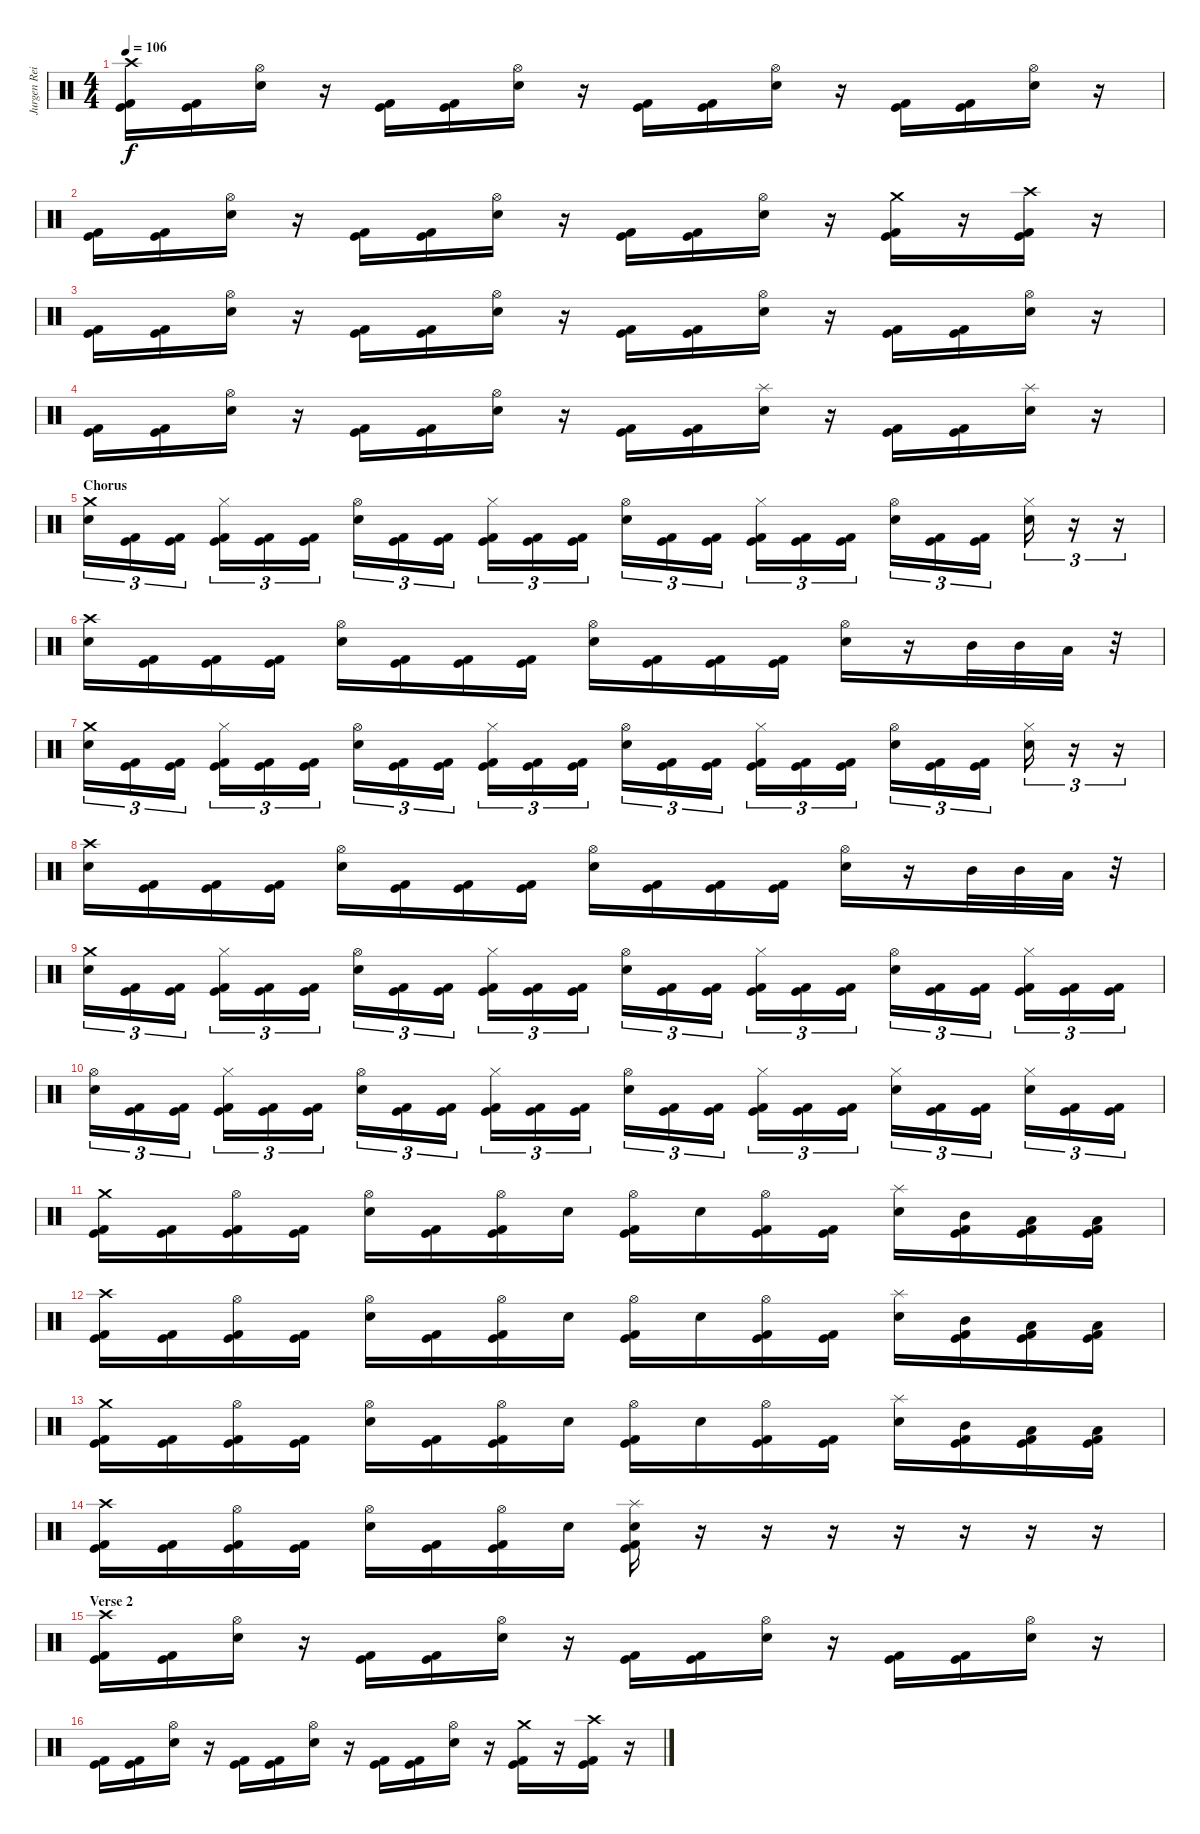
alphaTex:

\track ("Jurgen Reil" "Jurgen Rei") {instrument percussion}
\staff {score}
\articulation defaults
\ts (4 4)
\tempo 106
\clef neutral
\ks c
("Crash high (hit)" "Kick (hit)" "Kick (hit) 2").16{dy f} ("Kick (hit)" "Kick (hit) 2").16 ("Hi-Hat (open)" "Electric Snare (hit)").16 r.16 ("Kick (hit)" "Kick (hit) 2").16 ("Kick (hit)" "Kick (hit) 2").16 ("Hi-Hat (open)" "Electric Snare (hit)").16 r.16 ("Kick (hit)" "Kick (hit) 2").16 ("Kick (hit)" "Kick (hit) 2").16 ("Hi-Hat (open)" "Electric Snare (hit)").16 r.16 ("Kick (hit)" "Kick (hit) 2").16 ("Kick (hit)" "Kick (hit) 2").16 ("Hi-Hat (open)" "Electric Snare (hit)").16 r.16 |
("Kick (hit)" "Kick (hit) 2").16 ("Kick (hit)" "Kick (hit) 2").16 ("Hi-Hat (open)" "Electric Snare (hit)").16 r.16 ("Kick (hit)" "Kick (hit) 2").16 ("Kick (hit)" "Kick (hit) 2").16 ("Hi-Hat (open)" "Electric Snare (hit)").16 r.16 ("Kick (hit)" "Kick (hit) 2").16 ("Kick (hit)" "Kick (hit) 2").16 ("Hi-Hat (open)" "Electric Snare (hit)").16 r.16 ("Crash medium (hit)" "Kick (hit)" "Kick (hit) 2").16 r.16 ("Crash high (hit)" "Kick (hit)" "Kick (hit) 2").16 r.16 |
("Kick (hit)" "Kick (hit) 2").16 ("Kick (hit)" "Kick (hit) 2").16 ("Hi-Hat (open)" "Electric Snare (hit)").16 r.16 ("Kick (hit)" "Kick (hit) 2").16 ("Kick (hit)" "Kick (hit) 2").16 ("Hi-Hat (open)" "Electric Snare (hit)").16 r.16 ("Kick (hit)" "Kick (hit) 2").16 ("Kick (hit)" "Kick (hit) 2").16 ("Hi-Hat (open)" "Electric Snare (hit)").16 r.16 ("Kick (hit)" "Kick (hit) 2").16 ("Kick (hit)" "Kick (hit) 2").16 ("Hi-Hat (open)" "Electric Snare (hit)").16 r.16 |
("Kick (hit)" "Kick (hit) 2").16 ("Kick (hit)" "Kick (hit) 2").16 ("Hi-Hat (open)" "Electric Snare (hit)").16 r.16 ("Kick (hit)" "Kick (hit) 2").16 ("Kick (hit)" "Kick (hit) 2").16 ("Hi-Hat (open)" "Electric Snare (hit)").16 r.16 ("Kick (hit)" "Kick (hit) 2").16 ("Kick (hit)" "Kick (hit) 2").16 ("Splash (hit)" "Electric Snare (hit)").16 r.16 ("Kick (hit)" "Kick (hit) 2").16 ("Kick (hit)" "Kick (hit) 2").16 ("Splash (hit)" "Electric Snare (hit)").16 r.16 |
\section ("" "Chorus")
("Crash medium (hit)" "Electric Snare (hit)").16{tu (3 2)} ("Kick (hit)" "Kick (hit) 2").16{tu (3 2)} ("Kick (hit)" "Kick (hit) 2").16{tu (3 2)} ("Hi-Hat (closed)" "Kick (hit)" "Kick (hit) 2").16{tu (3 2)} ("Kick (hit)" "Kick (hit) 2").16{tu (3 2)} ("Kick (hit)" "Kick (hit) 2").16{tu (3 2)} ("Hi-Hat (open)" "Electric Snare (hit)").16{tu (3 2)} ("Kick (hit)" "Kick (hit) 2").16{tu (3 2)} ("Kick (hit)" "Kick (hit) 2").16{tu (3 2)} ("Hi-Hat (closed)" "Kick (hit)" "Kick (hit) 2").16{tu (3 2)} ("Kick (hit)" "Kick (hit) 2").16{tu (3 2)} ("Kick (hit)" "Kick (hit) 2").16{tu (3 2)} ("Hi-Hat (open)" "Electric Snare (hit)").16{tu (3 2)} ("Kick (hit)" "Kick (hit) 2").16{tu (3 2)} ("Kick (hit)" "Kick (hit) 2").16{tu (3 2)} ("Hi-Hat (closed)" "Kick (hit)" "Kick (hit) 2").16{tu (3 2)} ("Kick (hit)" "Kick (hit) 2").16{tu (3 2)} ("Kick (hit)" "Kick (hit) 2").16{tu (3 2)} ("Hi-Hat (open)" "Electric Snare (hit)").16{tu (3 2)} ("Kick (hit)" "Kick (hit) 2").16{tu (3 2)} ("Kick (hit)" "Kick (hit) 2").16{tu (3 2)} ("Hi-Hat (closed)" "Electric Snare (hit)").16{tu (3 2)} r.16{tu (3 2)} r.16{tu (3 2)} |
("Crash high (hit)" "Electric Snare (hit)").16 ("Kick (hit)" "Kick (hit) 2").16 ("Kick (hit)" "Kick (hit) 2").16 ("Kick (hit)" "Kick (hit) 2").16 ("Hi-Hat (open)" "Electric Snare (hit)").16 ("Kick (hit)" "Kick (hit) 2").16 ("Kick (hit)" "Kick (hit) 2").16 ("Kick (hit)" "Kick (hit) 2").16 ("Hi-Hat (open)" "Electric Snare (hit)").16 ("Kick (hit)" "Kick (hit) 2").16 ("Kick (hit)" "Kick (hit) 2").16 ("Kick (hit)" "Kick (hit) 2").16 ("Hi-Hat (open)" "Electric Snare (hit)").16 r.16 "Mid Tom (hit)".32 "Mid Tom (hit)".32 "Low Tom (hit)".32 r.32 |
("Crash medium (hit)" "Electric Snare (hit)").16{tu (3 2)} ("Kick (hit)" "Kick (hit) 2").16{tu (3 2)} ("Kick (hit)" "Kick (hit) 2").16{tu (3 2)} ("Hi-Hat (closed)" "Kick (hit)" "Kick (hit) 2").16{tu (3 2)} ("Kick (hit)" "Kick (hit) 2").16{tu (3 2)} ("Kick (hit)" "Kick (hit) 2").16{tu (3 2)} ("Hi-Hat (open)" "Electric Snare (hit)").16{tu (3 2)} ("Kick (hit)" "Kick (hit) 2").16{tu (3 2)} ("Kick (hit)" "Kick (hit) 2").16{tu (3 2)} ("Hi-Hat (closed)" "Kick (hit)" "Kick (hit) 2").16{tu (3 2)} ("Kick (hit)" "Kick (hit) 2").16{tu (3 2)} ("Kick (hit)" "Kick (hit) 2").16{tu (3 2)} ("Hi-Hat (open)" "Electric Snare (hit)").16{tu (3 2)} ("Kick (hit)" "Kick (hit) 2").16{tu (3 2)} ("Kick (hit)" "Kick (hit) 2").16{tu (3 2)} ("Hi-Hat (closed)" "Kick (hit)" "Kick (hit) 2").16{tu (3 2)} ("Kick (hit)" "Kick (hit) 2").16{tu (3 2)} ("Kick (hit)" "Kick (hit) 2").16{tu (3 2)} ("Hi-Hat (open)" "Electric Snare (hit)").16{tu (3 2)} ("Kick (hit)" "Kick (hit) 2").16{tu (3 2)} ("Kick (hit)" "Kick (hit) 2").16{tu (3 2)} ("Hi-Hat (closed)" "Electric Snare (hit)").16{tu (3 2)} r.16{tu (3 2)} r.16{tu (3 2)} |
("Crash high (hit)" "Electric Snare (hit)").16 ("Kick (hit)" "Kick (hit) 2").16 ("Kick (hit)" "Kick (hit) 2").16 ("Kick (hit)" "Kick (hit) 2").16 ("Hi-Hat (open)" "Electric Snare (hit)").16 ("Kick (hit)" "Kick (hit) 2").16 ("Kick (hit)" "Kick (hit) 2").16 ("Kick (hit)" "Kick (hit) 2").16 ("Hi-Hat (open)" "Electric Snare (hit)").16 ("Kick (hit)" "Kick (hit) 2").16 ("Kick (hit)" "Kick (hit) 2").16 ("Kick (hit)" "Kick (hit) 2").16 ("Hi-Hat (open)" "Electric Snare (hit)").16 r.16 "Mid Tom (hit)".32 "Mid Tom (hit)".32 "Low Tom (hit)".32 r.32 |
("Crash medium (hit)" "Electric Snare (hit)").16{tu (3 2)} ("Kick (hit)" "Kick (hit) 2").16{tu (3 2)} ("Kick (hit)" "Kick (hit) 2").16{tu (3 2)} ("Hi-Hat (closed)" "Kick (hit)" "Kick (hit) 2").16{tu (3 2)} ("Kick (hit)" "Kick (hit) 2").16{tu (3 2)} ("Kick (hit)" "Kick (hit) 2").16{tu (3 2)} ("Hi-Hat (open)" "Electric Snare (hit)").16{tu (3 2)} ("Kick (hit)" "Kick (hit) 2").16{tu (3 2)} ("Kick (hit)" "Kick (hit) 2").16{tu (3 2)} ("Hi-Hat (closed)" "Kick (hit)" "Kick (hit) 2").16{tu (3 2)} ("Kick (hit)" "Kick (hit) 2").16{tu (3 2)} ("Kick (hit)" "Kick (hit) 2").16{tu (3 2)} ("Hi-Hat (open)" "Electric Snare (hit)").16{tu (3 2)} ("Kick (hit)" "Kick (hit) 2").16{tu (3 2)} ("Kick (hit)" "Kick (hit) 2").16{tu (3 2)} ("Hi-Hat (closed)" "Kick (hit)" "Kick (hit) 2").16{tu (3 2)} ("Kick (hit)" "Kick (hit) 2").16{tu (3 2)} ("Kick (hit)" "Kick (hit) 2").16{tu (3 2)} ("Hi-Hat (open)" "Electric Snare (hit)").16{tu (3 2)} ("Kick (hit)" "Kick (hit) 2").16{tu (3 2)} ("Kick (hit)" "Kick (hit) 2").16{tu (3 2)} ("Hi-Hat (closed)" "Kick (hit)" "Kick (hit) 2").16{tu (3 2)} ("Kick (hit)" "Kick (hit) 2").16{tu (3 2)} ("Kick (hit)" "Kick (hit) 2").16{tu (3 2)} |
("Hi-Hat (open)" "Electric Snare (hit)").16{tu (3 2)} ("Kick (hit)" "Kick (hit) 2").16{tu (3 2)} ("Kick (hit)" "Kick (hit) 2").16{tu (3 2)} ("Hi-Hat (closed)" "Kick (hit)" "Kick (hit) 2").16{tu (3 2)} ("Kick (hit)" "Kick (hit) 2").16{tu (3 2)} ("Kick (hit)" "Kick (hit) 2").16{tu (3 2)} ("Hi-Hat (open)" "Electric Snare (hit)").16{tu (3 2)} ("Kick (hit)" "Kick (hit) 2").16{tu (3 2)} ("Kick (hit)" "Kick (hit) 2").16{tu (3 2)} ("Hi-Hat (closed)" "Kick (hit)" "Kick (hit) 2").16{tu (3 2)} ("Kick (hit)" "Kick (hit) 2").16{tu (3 2)} ("Kick (hit)" "Kick (hit) 2").16{tu (3 2)} ("Hi-Hat (open)" "Electric Snare (hit)").16{tu (3 2)} ("Kick (hit)" "Kick (hit) 2").16{tu (3 2)} ("Kick (hit)" "Kick (hit) 2").16{tu (3 2)} ("Hi-Hat (closed)" "Kick (hit)" "Kick (hit) 2").16{tu (3 2)} ("Kick (hit)" "Kick (hit) 2").16{tu (3 2)} ("Kick (hit)" "Kick (hit) 2").16{tu (3 2)} ("Hi-Hat (closed)" "Electric Snare (hit)").16{tu (3 2)} ("Kick (hit)" "Kick (hit) 2").16{tu (3 2)} ("Kick (hit)" "Kick (hit) 2").16{tu (3 2)} ("Hi-Hat (closed)" "Electric Snare (hit)").16{tu (3 2)} ("Kick (hit)" "Kick (hit) 2").16{tu (3 2)} ("Kick (hit)" "Kick (hit) 2").16{tu (3 2)} |
("Crash medium (hit)" "Kick (hit)" "Kick (hit) 2").16 ("Kick (hit)" "Kick (hit) 2").16 ("Hi-Hat (open)" "Kick (hit)" "Kick (hit) 2").16 ("Kick (hit)" "Kick (hit) 2").16 ("Hi-Hat (open)" "Electric Snare (hit)").16 ("Kick (hit)" "Kick (hit) 2").16 ("Hi-Hat (open)" "Kick (hit)" "Kick (hit) 2").16 "Electric Snare (hit)".16 ("Hi-Hat (open)" "Kick (hit)" "Kick (hit) 2").16 "Electric Snare (hit)".16 ("Hi-Hat (open)" "Kick (hit)" "Kick (hit) 2").16 ("Kick (hit)" "Kick (hit) 2").16 ("Splash (hit)" "Electric Snare (hit)").16 ("Mid Tom (hit)" "Kick (hit)" "Kick (hit) 2").16 ("Low Tom (hit)" "Kick (hit)" "Kick (hit) 2").16 ("Low Tom (hit)" "Kick (hit)" "Kick (hit) 2").16 |
("Crash high (hit)" "Kick (hit)" "Kick (hit) 2").16 ("Kick (hit)" "Kick (hit) 2").16 ("Hi-Hat (open)" "Kick (hit)" "Kick (hit) 2").16 ("Kick (hit)" "Kick (hit) 2").16 ("Hi-Hat (open)" "Electric Snare (hit)").16 ("Kick (hit)" "Kick (hit) 2").16 ("Hi-Hat (open)" "Kick (hit)" "Kick (hit) 2").16 "Electric Snare (hit)".16 ("Hi-Hat (open)" "Kick (hit)" "Kick (hit) 2").16 "Electric Snare (hit)".16 ("Hi-Hat (open)" "Kick (hit)" "Kick (hit) 2").16 ("Kick (hit)" "Kick (hit) 2").16 ("Splash (hit)" "Electric Snare (hit)").16 ("Mid Tom (hit)" "Kick (hit)" "Kick (hit) 2").16 ("Low Tom (hit)" "Kick (hit)" "Kick (hit) 2").16 ("Low Tom (hit)" "Kick (hit)" "Kick (hit) 2").16 |
("Crash medium (hit)" "Kick (hit)" "Kick (hit) 2").16 ("Kick (hit)" "Kick (hit) 2").16 ("Hi-Hat (open)" "Kick (hit)" "Kick (hit) 2").16 ("Kick (hit)" "Kick (hit) 2").16 ("Hi-Hat (open)" "Electric Snare (hit)").16 ("Kick (hit)" "Kick (hit) 2").16 ("Hi-Hat (open)" "Kick (hit)" "Kick (hit) 2").16 "Electric Snare (hit)".16 ("Hi-Hat (open)" "Kick (hit)" "Kick (hit) 2").16 "Electric Snare (hit)".16 ("Hi-Hat (open)" "Kick (hit)" "Kick (hit) 2").16 ("Kick (hit)" "Kick (hit) 2").16 ("Splash (hit)" "Electric Snare (hit)").16 ("Mid Tom (hit)" "Kick (hit)" "Kick (hit) 2").16 ("Low Tom (hit)" "Kick (hit)" "Kick (hit) 2").16 ("Low Tom (hit)" "Kick (hit)" "Kick (hit) 2").16 |
("Crash high (hit)" "Kick (hit)" "Kick (hit) 2").16 ("Kick (hit)" "Kick (hit) 2").16 ("Hi-Hat (open)" "Kick (hit)" "Kick (hit) 2").16 ("Kick (hit)" "Kick (hit) 2").16 ("Hi-Hat (open)" "Electric Snare (hit)").16 ("Kick (hit)" "Kick (hit) 2").16 ("Hi-Hat (open)" "Kick (hit)" "Kick (hit) 2").16 "Electric Snare (hit)".16 ("Splash (hit)" "Electric Snare (hit)" "Kick (hit)" "Kick (hit) 2").16 r.16 r.16 r.16 r.16 r.16 r.16 r.16 |
\section ("" "Verse 2")
("Crash high (hit)" "Kick (hit)" "Kick (hit) 2").16 ("Kick (hit)" "Kick (hit) 2").16 ("Hi-Hat (open)" "Electric Snare (hit)").16 r.16 ("Kick (hit)" "Kick (hit) 2").16 ("Kick (hit)" "Kick (hit) 2").16 ("Hi-Hat (open)" "Electric Snare (hit)").16 r.16 ("Kick (hit)" "Kick (hit) 2").16 ("Kick (hit)" "Kick (hit) 2").16 ("Hi-Hat (open)" "Electric Snare (hit)").16 r.16 ("Kick (hit)" "Kick (hit) 2").16 ("Kick (hit)" "Kick (hit) 2").16 ("Hi-Hat (open)" "Electric Snare (hit)").16 r.16 |
("Kick (hit)" "Kick (hit) 2").16 ("Kick (hit)" "Kick (hit) 2").16 ("Hi-Hat (open)" "Electric Snare (hit)").16 r.16 ("Kick (hit)" "Kick (hit) 2").16 ("Kick (hit)" "Kick (hit) 2").16 ("Hi-Hat (open)" "Electric Snare (hit)").16 r.16 ("Kick (hit)" "Kick (hit) 2").16 ("Kick (hit)" "Kick (hit) 2").16 ("Hi-Hat (open)" "Electric Snare (hit)").16 r.16 ("Crash medium (hit)" "Kick (hit)" "Kick (hit) 2").16 r.16 ("Crash high (hit)" "Kick (hit)" "Kick (hit) 2").16 r.16
